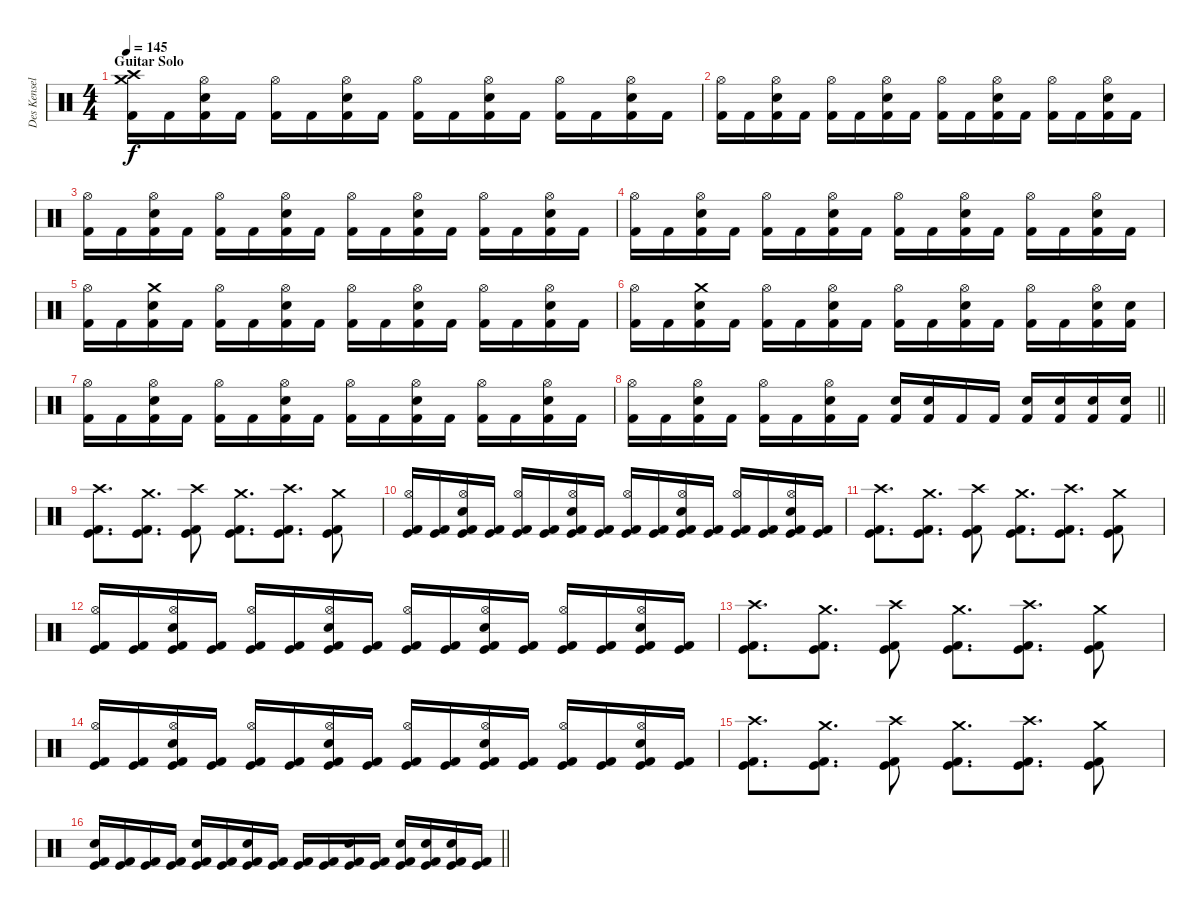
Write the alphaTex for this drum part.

\track ("Des Kensel" "Des Kensel") {instrument percussion}
\staff {score}
\articulation defaults
\ts (4 4)
\section ("" "Guitar Solo")
\tempo 145
\clef neutral
\ks c
("Crash medium (hit)" "Crash high (hit)" "Kick (hit) 2").16{dy f volume 16} "Kick (hit) 2".16 ("Hi-Hat (open)" "Electric Snare (hit)" "Kick (hit) 2").16 "Kick (hit) 2".16 ("Hi-Hat (open)" "Kick (hit) 2").16 "Kick (hit) 2".16 ("Hi-Hat (open)" "Electric Snare (hit)" "Kick (hit) 2").16 "Kick (hit) 2".16 ("Hi-Hat (open)" "Kick (hit) 2").16 "Kick (hit) 2".16 ("Hi-Hat (open)" "Electric Snare (hit)" "Kick (hit) 2").16 "Kick (hit) 2".16 ("Hi-Hat (open)" "Kick (hit) 2").16 "Kick (hit) 2".16 ("Hi-Hat (open)" "Electric Snare (hit)" "Kick (hit) 2").16 "Kick (hit) 2".16 |
("Hi-Hat (open)" "Kick (hit) 2").16 "Kick (hit) 2".16 ("Hi-Hat (open)" "Electric Snare (hit)" "Kick (hit) 2").16 "Kick (hit) 2".16 ("Hi-Hat (open)" "Kick (hit) 2").16 "Kick (hit) 2".16 ("Hi-Hat (open)" "Electric Snare (hit)" "Kick (hit) 2").16 "Kick (hit) 2".16 ("Hi-Hat (open)" "Kick (hit) 2").16 "Kick (hit) 2".16 ("Hi-Hat (open)" "Electric Snare (hit)" "Kick (hit) 2").16 "Kick (hit) 2".16 ("Hi-Hat (open)" "Kick (hit) 2").16 "Kick (hit) 2".16 ("Hi-Hat (open)" "Electric Snare (hit)" "Kick (hit) 2").16 "Kick (hit) 2".16 |
("Hi-Hat (open)" "Kick (hit) 2").16 "Kick (hit) 2".16 ("Hi-Hat (open)" "Electric Snare (hit)" "Kick (hit) 2").16 "Kick (hit) 2".16 ("Hi-Hat (open)" "Kick (hit) 2").16 "Kick (hit) 2".16 ("Hi-Hat (open)" "Electric Snare (hit)" "Kick (hit) 2").16 "Kick (hit) 2".16 ("Hi-Hat (open)" "Kick (hit) 2").16 "Kick (hit) 2".16 ("Hi-Hat (open)" "Electric Snare (hit)" "Kick (hit) 2").16 "Kick (hit) 2".16 ("Hi-Hat (open)" "Kick (hit) 2").16 "Kick (hit) 2".16 ("Hi-Hat (open)" "Electric Snare (hit)" "Kick (hit) 2").16 "Kick (hit) 2".16 |
("Hi-Hat (open)" "Kick (hit) 2").16 "Kick (hit) 2".16 ("Hi-Hat (open)" "Electric Snare (hit)" "Kick (hit) 2").16 "Kick (hit) 2".16 ("Hi-Hat (open)" "Kick (hit) 2").16 "Kick (hit) 2".16 ("Hi-Hat (open)" "Electric Snare (hit)" "Kick (hit) 2").16 "Kick (hit) 2".16 ("Hi-Hat (open)" "Kick (hit) 2").16 "Kick (hit) 2".16 ("Hi-Hat (open)" "Electric Snare (hit)" "Kick (hit) 2").16 "Kick (hit) 2".16 ("Hi-Hat (open)" "Kick (hit) 2").16 "Kick (hit) 2".16 ("Hi-Hat (open)" "Electric Snare (hit)" "Kick (hit) 2").16 "Kick (hit) 2".16 |
("Hi-Hat (open)" "Kick (hit) 2").16 "Kick (hit) 2".16 ("Crash medium (hit)" "Electric Snare (hit)" "Kick (hit) 2").16 "Kick (hit) 2".16 ("Hi-Hat (open)" "Kick (hit) 2").16 "Kick (hit) 2".16 ("Hi-Hat (open)" "Electric Snare (hit)" "Kick (hit) 2").16 "Kick (hit) 2".16 ("Hi-Hat (open)" "Kick (hit) 2").16 "Kick (hit) 2".16 ("Hi-Hat (open)" "Electric Snare (hit)" "Kick (hit) 2").16 "Kick (hit) 2".16 ("Hi-Hat (open)" "Kick (hit) 2").16 "Kick (hit) 2".16 ("Hi-Hat (open)" "Electric Snare (hit)" "Kick (hit) 2").16 "Kick (hit) 2".16 |
("Hi-Hat (open)" "Kick (hit) 2").16 "Kick (hit) 2".16 ("Crash medium (hit)" "Electric Snare (hit)" "Kick (hit) 2").16 "Kick (hit) 2".16 ("Hi-Hat (open)" "Kick (hit) 2").16 "Kick (hit) 2".16 ("Hi-Hat (open)" "Electric Snare (hit)" "Kick (hit) 2").16 "Kick (hit) 2".16 ("Hi-Hat (open)" "Kick (hit) 2").16 "Kick (hit) 2".16 ("Hi-Hat (open)" "Electric Snare (hit)" "Kick (hit) 2").16 "Kick (hit) 2".16 ("Hi-Hat (open)" "Kick (hit) 2").16 "Kick (hit) 2".16 ("Hi-Hat (open)" "Electric Snare (hit)" "Kick (hit) 2").16 ("Electric Snare (hit)" "Kick (hit) 2").16 |
("Hi-Hat (open)" "Kick (hit) 2").16 "Kick (hit) 2".16 ("Hi-Hat (open)" "Electric Snare (hit)" "Kick (hit) 2").16 "Kick (hit) 2".16 ("Hi-Hat (open)" "Kick (hit) 2").16 "Kick (hit) 2".16 ("Hi-Hat (open)" "Electric Snare (hit)" "Kick (hit) 2").16 "Kick (hit) 2".16 ("Hi-Hat (open)" "Kick (hit) 2").16 "Kick (hit) 2".16 ("Hi-Hat (open)" "Electric Snare (hit)" "Kick (hit) 2").16 "Kick (hit) 2".16 ("Hi-Hat (open)" "Kick (hit) 2").16 "Kick (hit) 2".16 ("Hi-Hat (open)" "Electric Snare (hit)" "Kick (hit) 2").16 "Kick (hit) 2".16 |
\barLineRight lightlight
("Hi-Hat (open)" "Kick (hit) 2").16 "Kick (hit) 2".16 ("Hi-Hat (open)" "Electric Snare (hit)" "Kick (hit) 2").16 "Kick (hit) 2".16 ("Hi-Hat (open)" "Kick (hit) 2").16 "Kick (hit) 2".16 ("Hi-Hat (open)" "Electric Snare (hit)" "Kick (hit) 2").16 "Kick (hit) 2".16 ("Electric Snare (hit)" "Kick (hit) 2").16 ("Electric Snare (hit)" "Kick (hit) 2").16 "Kick (hit) 2".16 "Kick (hit) 2".16 ("Electric Snare (hit)" "Kick (hit) 2").16 ("Electric Snare (hit)" "Kick (hit) 2").16 ("Electric Snare (hit)" "Kick (hit) 2").16 ("Electric Snare (hit)" "Kick (hit) 2").16 |
("Crash high (hit)" "Kick (hit)" "Kick (hit) 2").8{d} ("Crash medium (hit)" "Kick (hit)" "Kick (hit) 2").8{d} ("Crash high (hit)" "Kick (hit)" "Kick (hit) 2").8 ("Crash medium (hit)" "Kick (hit)" "Kick (hit) 2").8{d} ("Crash high (hit)" "Kick (hit)" "Kick (hit) 2").8{d} ("Crash medium (hit)" "Kick (hit)" "Kick (hit) 2").8 |
("Hi-Hat (open)" "Kick (hit)" "Kick (hit) 2").16 ("Kick (hit)" "Kick (hit) 2").16 ("Hi-Hat (open)" "Electric Snare (hit)" "Kick (hit)" "Kick (hit) 2").16 ("Kick (hit)" "Kick (hit) 2").16 ("Hi-Hat (open)" "Kick (hit)" "Kick (hit) 2").16 ("Kick (hit)" "Kick (hit) 2").16 ("Hi-Hat (open)" "Electric Snare (hit)" "Kick (hit)" "Kick (hit) 2").16 ("Kick (hit)" "Kick (hit) 2").16 ("Hi-Hat (open)" "Kick (hit)" "Kick (hit) 2").16 ("Kick (hit)" "Kick (hit) 2").16 ("Hi-Hat (open)" "Electric Snare (hit)" "Kick (hit)" "Kick (hit) 2").16 ("Kick (hit)" "Kick (hit) 2").16 ("Hi-Hat (open)" "Kick (hit)" "Kick (hit) 2").16 ("Kick (hit)" "Kick (hit) 2").16 ("Hi-Hat (open)" "Electric Snare (hit)" "Kick (hit)" "Kick (hit) 2").16 ("Kick (hit)" "Kick (hit) 2").16 |
("Crash high (hit)" "Kick (hit)" "Kick (hit) 2").8{d} ("Crash medium (hit)" "Kick (hit)" "Kick (hit) 2").8{d} ("Crash high (hit)" "Kick (hit)" "Kick (hit) 2").8 ("Crash medium (hit)" "Kick (hit)" "Kick (hit) 2").8{d} ("Crash high (hit)" "Kick (hit)" "Kick (hit) 2").8{d} ("Crash medium (hit)" "Kick (hit)" "Kick (hit) 2").8 |
("Hi-Hat (open)" "Kick (hit)" "Kick (hit) 2").16 ("Kick (hit)" "Kick (hit) 2").16 ("Hi-Hat (open)" "Electric Snare (hit)" "Kick (hit)" "Kick (hit) 2").16 ("Kick (hit)" "Kick (hit) 2").16 ("Hi-Hat (open)" "Kick (hit)" "Kick (hit) 2").16 ("Kick (hit)" "Kick (hit) 2").16 ("Hi-Hat (open)" "Electric Snare (hit)" "Kick (hit)" "Kick (hit) 2").16 ("Kick (hit)" "Kick (hit) 2").16 ("Hi-Hat (open)" "Kick (hit)" "Kick (hit) 2").16 ("Kick (hit)" "Kick (hit) 2").16 ("Hi-Hat (open)" "Electric Snare (hit)" "Kick (hit)" "Kick (hit) 2").16 ("Kick (hit)" "Kick (hit) 2").16 ("Hi-Hat (open)" "Kick (hit)" "Kick (hit) 2").16 ("Kick (hit)" "Kick (hit) 2").16 ("Hi-Hat (open)" "Electric Snare (hit)" "Kick (hit)" "Kick (hit) 2").16 ("Kick (hit)" "Kick (hit) 2").16 |
("Crash high (hit)" "Kick (hit)" "Kick (hit) 2").8{d} ("Crash medium (hit)" "Kick (hit)" "Kick (hit) 2").8{d} ("Crash high (hit)" "Kick (hit)" "Kick (hit) 2").8 ("Crash medium (hit)" "Kick (hit)" "Kick (hit) 2").8{d} ("Crash high (hit)" "Kick (hit)" "Kick (hit) 2").8{d} ("Crash medium (hit)" "Kick (hit)" "Kick (hit) 2").8 |
("Hi-Hat (open)" "Kick (hit)" "Kick (hit) 2").16 ("Kick (hit)" "Kick (hit) 2").16 ("Hi-Hat (open)" "Electric Snare (hit)" "Kick (hit)" "Kick (hit) 2").16 ("Kick (hit)" "Kick (hit) 2").16 ("Hi-Hat (open)" "Kick (hit)" "Kick (hit) 2").16 ("Kick (hit)" "Kick (hit) 2").16 ("Hi-Hat (open)" "Electric Snare (hit)" "Kick (hit)" "Kick (hit) 2").16 ("Kick (hit)" "Kick (hit) 2").16 ("Hi-Hat (open)" "Kick (hit)" "Kick (hit) 2").16 ("Kick (hit)" "Kick (hit) 2").16 ("Hi-Hat (open)" "Electric Snare (hit)" "Kick (hit)" "Kick (hit) 2").16 ("Kick (hit)" "Kick (hit) 2").16 ("Hi-Hat (open)" "Kick (hit)" "Kick (hit) 2").16 ("Kick (hit)" "Kick (hit) 2").16 ("Hi-Hat (open)" "Electric Snare (hit)" "Kick (hit)" "Kick (hit) 2").16 ("Kick (hit)" "Kick (hit) 2").16 |
("Crash high (hit)" "Kick (hit)" "Kick (hit) 2").8{d} ("Crash medium (hit)" "Kick (hit)" "Kick (hit) 2").8{d} ("Crash high (hit)" "Kick (hit)" "Kick (hit) 2").8 ("Crash medium (hit)" "Kick (hit)" "Kick (hit) 2").8{d} ("Crash high (hit)" "Kick (hit)" "Kick (hit) 2").8{d} ("Crash medium (hit)" "Kick (hit)" "Kick (hit) 2").8 |
\barLineRight lightlight
("Electric Snare (hit)" "Kick (hit)" "Kick (hit) 2").16 ("Kick (hit)" "Kick (hit) 2").16 ("Kick (hit)" "Kick (hit) 2").16 ("Kick (hit)" "Kick (hit) 2").16 ("Electric Snare (hit)" "Kick (hit)" "Kick (hit) 2").16 ("Kick (hit)" "Kick (hit) 2").16 ("Electric Snare (hit)" "Kick (hit)" "Kick (hit) 2").16 ("Kick (hit)" "Kick (hit) 2").16 ("Kick (hit)" "Kick (hit) 2").16 ("Kick (hit)" "Kick (hit) 2").16 ("Electric Snare (hit)" "Kick (hit)" "Kick (hit) 2").16 ("Kick (hit)" "Kick (hit) 2").16 ("Electric Snare (hit)" "Kick (hit)" "Kick (hit) 2").16 ("Electric Snare (hit)" "Kick (hit)" "Kick (hit) 2").16 ("Electric Snare (hit)" "Kick (hit)" "Kick (hit) 2").16 ("Kick (hit)" "Kick (hit) 2").16
